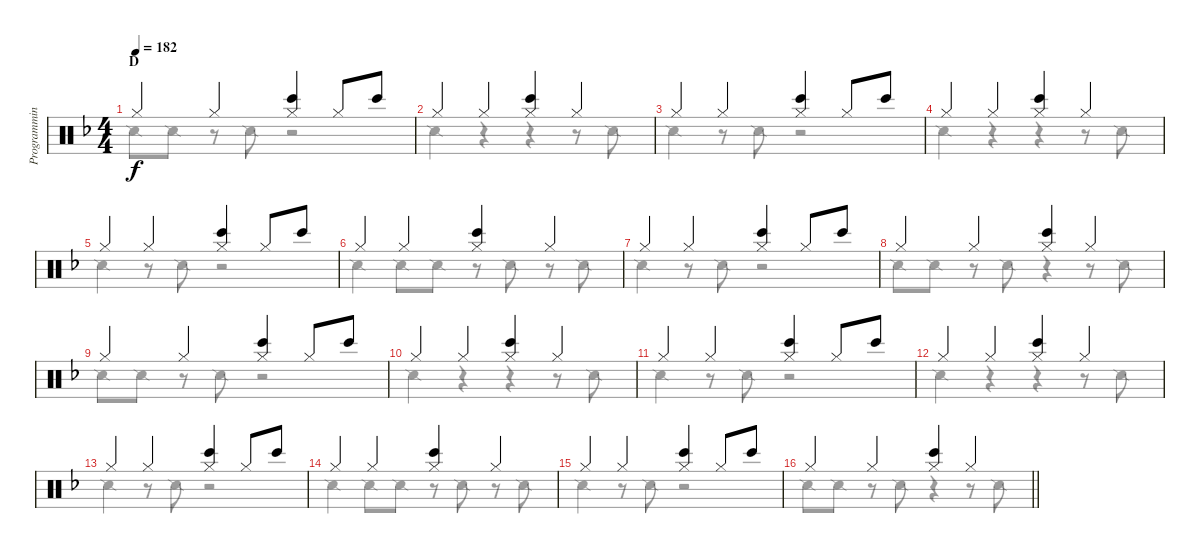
\track ("Programming" "Programmin") {instrument percussion}
\staff {score}
\articulation defaults
\voice
\ts (4 4)
\section ("" "D")
\tempo 182
\clef neutral
\ks f "Hi-Hat (closed)".4{dy f} "Hi-Hat (closed)".4
("Hi-Hat (closed)" "Bongo High (hit)").4 "Hi-Hat (closed)".8 "Bongo High (hit)".8 |
"Hi-Hat (closed)".4 "Hi-Hat (closed)".4 ("Hi-Hat (closed)" "Bongo High (hit)").4 "Hi-Hat (closed)".4 |
"Hi-Hat (closed)".4 "Hi-Hat (closed)".4 ("Hi-Hat (closed)" "Bongo High (hit)").4 "Hi-Hat (closed)".8 "Bongo High (hit)".8 |
"Hi-Hat (closed)".4 "Hi-Hat (closed)".4 ("Hi-Hat (closed)" "Bongo High (hit)").4 "Hi-Hat (closed)".4 |
"Hi-Hat (closed)".4 "Hi-Hat (closed)".4 ("Hi-Hat (closed)" "Bongo High (hit)").4 "Hi-Hat (closed)".8 "Bongo High (hit)".8 |
"Hi-Hat (closed)".4 "Hi-Hat (closed)".4 ("Hi-Hat (closed)" "Bongo High (hit)").4 "Hi-Hat (closed)".4 |
"Hi-Hat (closed)".4 "Hi-Hat (closed)".4 ("Hi-Hat (closed)" "Bongo High (hit)").4 "Hi-Hat (closed)".8 "Bongo High (hit)".8 |
"Hi-Hat (closed)".4 "Hi-Hat (closed)".4 ("Hi-Hat (closed)" "Bongo High (hit)").4 "Hi-Hat (closed)".4 |
"Hi-Hat (closed)".4 "Hi-Hat (closed)".4 ("Hi-Hat (closed)" "Bongo High (hit)").4 "Hi-Hat (closed)".8 "Bongo High (hit)".8 |
"Hi-Hat (closed)".4 "Hi-Hat (closed)".4 ("Hi-Hat (closed)" "Bongo High (hit)").4 "Hi-Hat (closed)".4 |
"Hi-Hat (closed)".4 "Hi-Hat (closed)".4 ("Hi-Hat (closed)" "Bongo High (hit)").4 "Hi-Hat (closed)".8 "Bongo High (hit)".8 |
"Hi-Hat (closed)".4 "Hi-Hat (closed)".4 ("Hi-Hat (closed)" "Bongo High (hit)").4 "Hi-Hat (closed)".4 |
"Hi-Hat (closed)".4 "Hi-Hat (closed)".4 ("Hi-Hat (closed)" "Bongo High (hit)").4 "Hi-Hat (closed)".8 "Bongo High (hit)".8 |
"Hi-Hat (closed)".4 "Hi-Hat (closed)".4 ("Hi-Hat (closed)" "Bongo High (hit)").4 "Hi-Hat (closed)".4 |
"Hi-Hat (closed)".4 "Hi-Hat (closed)".4 ("Hi-Hat (closed)" "Bongo High (hit)").4 "Hi-Hat (closed)".8 "Bongo High (hit)".8 |
\barLineRight lightlight "Hi-Hat (closed)".4 "Hi-Hat (closed)".4
("Hi-Hat (closed)" "Bongo High (hit)").4 "Hi-Hat (closed)".4
\voice
\clef neutral
\ottava regular
\simile none
\ks f "Snare (side stick) 2".8{dy f} "Snare (side stick) 2".8
r.8 "Snare (side stick) 2".8 r.2 |
"Snare (side stick) 2".4 r.4 r.4 r.8 "Snare (side stick) 2".8 |
"Snare (side stick) 2".4 r.8 "Snare (side stick) 2".8 r.2 |
"Snare (side stick) 2".4 r.4 r.4 r.8 "Snare (side stick) 2".8 |
"Snare (side stick) 2".4 r.8 "Snare (side stick) 2".8 r.2 |
"Snare (side stick) 2".4 "Snare (side stick) 2".8 "Snare (side stick) 2".8 r.8 "Snare (side stick) 2".8 r.8 "Snare (side stick) 2".8 |
"Snare (side stick) 2".4 r.8 "Snare (side stick) 2".8 r.2 |
"Snare (side stick) 2".8 "Snare (side stick) 2".8 r.8 "Snare (side stick) 2".8 r.4 r.8 "Snare (side stick) 2".8 |
"Snare (side stick) 2".8 "Snare (side stick) 2".8 r.8 "Snare (side stick) 2".8 r.2 |
"Snare (side stick) 2".4 r.4 r.4 r.8 "Snare (side stick) 2".8 |
"Snare (side stick) 2".4 r.8 "Snare (side stick) 2".8 r.2 |
"Snare (side stick) 2".4 r.4 r.4 r.8 "Snare (side stick) 2".8 |
"Snare (side stick) 2".4 r.8 "Snare (side stick) 2".8 r.2 |
"Snare (side stick) 2".4 "Snare (side stick) 2".8 "Snare (side stick) 2".8 r.8 "Snare (side stick) 2".8 r.8 "Snare (side stick) 2".8 |
"Snare (side stick) 2".4 r.8 "Snare (side stick) 2".8 r.2 |
\barLineRight lightlight "Snare (side stick) 2".8 "Snare (side stick) 2".8
r.8 "Snare (side stick) 2".8 r.4 r.8 "Snare (side stick) 2".8
